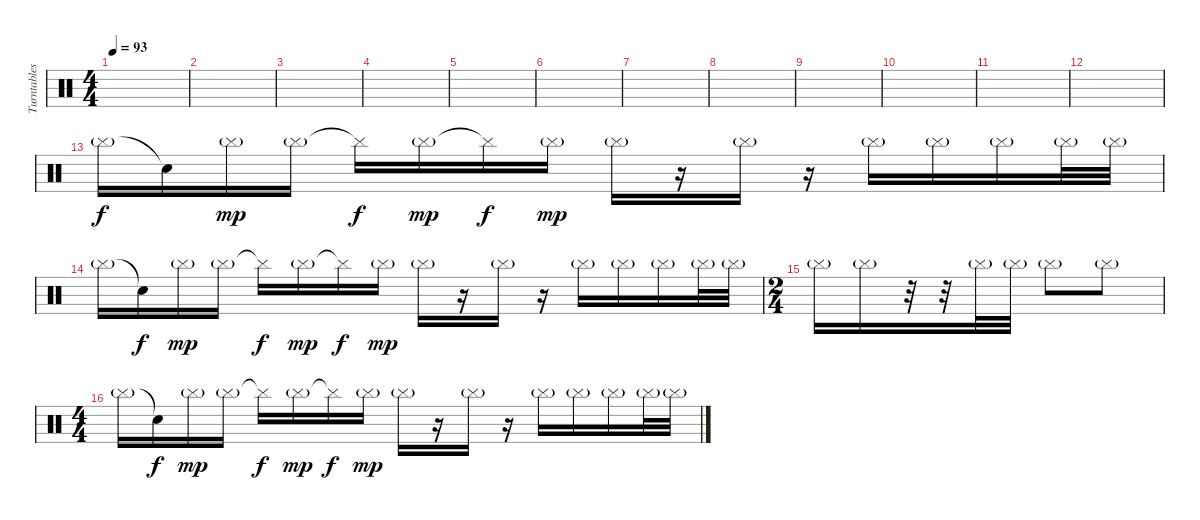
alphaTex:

\track ("Turntables" "Turntables") {instrument percussion}
\staff {score}
\articulation defaults
\ts (4 4)
\tempo 93
\clef neutral
\ks c
|
|
|
|
|
|
|
|
|
|
|
|
"Cymbal (hit)"{g}.16 "Snare (hit)"{t}.16{dy f} "Cymbal (hit)"{g}.16{dy mp} "Cymbal (hit)"{g}.16 "Cymbal (hit)"{t}.16{dy f} "Cymbal (hit)"{g}.16{dy mp} "Cymbal (hit)"{t}.16{dy f} "Cymbal (hit)"{g}.16{dy mp} "Cymbal (hit)"{g}.16 r.16 "Cymbal (hit)"{g}.16 r.16 "Cymbal (hit)"{g}.16 "Cymbal (hit)"{g}.16 "Cymbal (hit)"{g}.16 "Cymbal (hit)"{g}.32 "Cymbal (hit)"{g}.32 |
"Cymbal (hit)"{g}.16 "Snare (hit)"{t}.16{dy f} "Cymbal (hit)"{g}.16{dy mp} "Cymbal (hit)"{g}.16 "Cymbal (hit)"{t}.16{dy f} "Cymbal (hit)"{g}.16{dy mp} "Cymbal (hit)"{t}.16{dy f} "Cymbal (hit)"{g}.16{dy mp} "Cymbal (hit)"{g}.16 r.16 "Cymbal (hit)"{g}.16 r.16 "Cymbal (hit)"{g}.16 "Cymbal (hit)"{g}.16 "Cymbal (hit)"{g}.16 "Cymbal (hit)"{g}.32 "Cymbal (hit)"{g}.32 |
\ts (2 4)
"Cymbal (hit)"{g}.16 "Cymbal (hit)"{g}.16 r.32 r.32 "Cymbal (hit)"{g}.32 "Cymbal (hit)"{g}.32 "Cymbal (hit)"{g}.8 "Cymbal (hit)"{g}.8 |
\ts (4 4)
"Cymbal (hit)"{g}.16 "Snare (hit)"{t}.16{dy f} "Cymbal (hit)"{g}.16{dy mp} "Cymbal (hit)"{g}.16 "Cymbal (hit)"{t}.16{dy f} "Cymbal (hit)"{g}.16{dy mp} "Cymbal (hit)"{t}.16{dy f} "Cymbal (hit)"{g}.16{dy mp} "Cymbal (hit)"{g}.16 r.16 "Cymbal (hit)"{g}.16 r.16 "Cymbal (hit)"{g}.16 "Cymbal (hit)"{g}.16 "Cymbal (hit)"{g}.16 "Cymbal (hit)"{g}.32 "Cymbal (hit)"{g}.32
